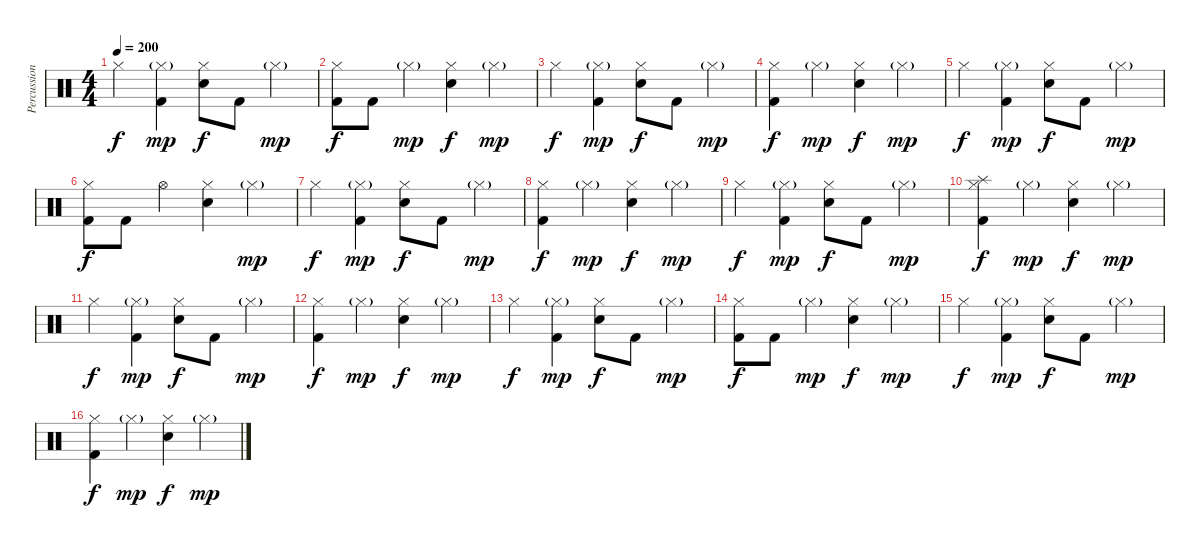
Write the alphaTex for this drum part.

\track ("Percussion" "Percussion") {instrument percussion}
\staff {score}
\articulation defaults
\ts (4 4)
\tempo 200
\clef neutral
\ks c "Hi-Hat (closed)".4{dy f}
("Hi-Hat (closed)"{g} "Kick (hit) 2").4{dy mp} ("Hi-Hat (closed)" "Electric Snare (hit)").8{dy f} "Kick (hit) 2".8 "Hi-Hat (closed)"{g}.4{dy mp} |
("Hi-Hat (closed)" "Kick (hit) 2").8{dy f} "Kick (hit) 2".8 "Hi-Hat (closed)"{g}.4{dy mp} ("Hi-Hat (closed)" "Electric Snare (hit)").4{dy f} "Hi-Hat (closed)"{g}.4{dy mp} |
"Hi-Hat (closed)".4{dy f} ("Hi-Hat (closed)"{g} "Kick (hit) 2").4{dy mp} ("Hi-Hat (closed)" "Electric Snare (hit)").8{dy f} "Kick (hit) 2".8 "Hi-Hat (closed)"{g}.4{dy mp} |
("Hi-Hat (closed)" "Kick (hit) 2").4{dy f} "Hi-Hat (closed)"{g}.4{dy mp} ("Hi-Hat (closed)" "Electric Snare (hit)").4{dy f} "Hi-Hat (closed)"{g}.4{dy mp} |
"Hi-Hat (closed)".4{dy f} ("Hi-Hat (closed)"{g} "Kick (hit) 2").4{dy mp} ("Hi-Hat (closed)" "Electric Snare (hit)").8{dy f} "Kick (hit) 2".8 "Hi-Hat (closed)"{g}.4{dy mp} |
("Hi-Hat (closed)" "Kick (hit) 2").8{dy f} "Kick (hit) 2".8 "Hi-Hat (open)".4 ("Hi-Hat (closed)" "Electric Snare (hit)").4 "Hi-Hat (closed)"{g}.4{dy mp} |
"Hi-Hat (closed)".4{dy f} ("Hi-Hat (closed)"{g} "Kick (hit) 2").4{dy mp} ("Hi-Hat (closed)" "Electric Snare (hit)").8{dy f} "Kick (hit) 2".8 "Hi-Hat (closed)"{g}.4{dy mp} |
("Hi-Hat (closed)" "Kick (hit) 2").4{dy f} "Hi-Hat (closed)"{g}.4{dy mp} ("Hi-Hat (closed)" "Electric Snare (hit)").4{dy f} "Hi-Hat (closed)"{g}.4{dy mp} |
"Hi-Hat (closed)".4{dy f} ("Hi-Hat (closed)"{g} "Kick (hit) 2").4{dy mp} ("Hi-Hat (closed)" "Electric Snare (hit)").8{dy f} "Kick (hit) 2".8 "Hi-Hat (closed)"{g}.4{dy mp} |
("Splash (hit)" "Hi-Hat (closed)" "Kick (hit) 2").4{dy f} "Hi-Hat (closed)"{g}.4{dy mp} ("Hi-Hat (closed)" "Electric Snare (hit)").4{dy f} "Hi-Hat (closed)"{g}.4{dy mp} |
"Hi-Hat (closed)".4{dy f} ("Hi-Hat (closed)"{g} "Kick (hit) 2").4{dy mp} ("Hi-Hat (closed)" "Electric Snare (hit)").8{dy f} "Kick (hit) 2".8 "Hi-Hat (closed)"{g}.4{dy mp} |
("Hi-Hat (closed)" "Kick (hit) 2").4{dy f} "Hi-Hat (closed)"{g}.4{dy mp} ("Hi-Hat (closed)" "Electric Snare (hit)").4{dy f} "Hi-Hat (closed)"{g}.4{dy mp} |
"Hi-Hat (closed)".4{dy f} ("Hi-Hat (closed)"{g} "Kick (hit) 2").4{dy mp} ("Hi-Hat (closed)" "Electric Snare (hit)").8{dy f} "Kick (hit) 2".8 "Hi-Hat (closed)"{g}.4{dy mp} |
("Hi-Hat (closed)" "Kick (hit) 2").8{dy f} "Kick (hit) 2".8 "Hi-Hat (closed)"{g}.4{dy mp} ("Hi-Hat (closed)" "Electric Snare (hit)").4{dy f} "Hi-Hat (closed)"{g}.4{dy mp} |
"Hi-Hat (closed)".4{dy f} ("Hi-Hat (closed)"{g} "Kick (hit) 2").4{dy mp} ("Hi-Hat (closed)" "Electric Snare (hit)").8{dy f} "Kick (hit) 2".8 "Hi-Hat (closed)"{g}.4{dy mp} |
("Hi-Hat (closed)" "Kick (hit) 2").4{dy f} "Hi-Hat (closed)"{g}.4{dy mp} ("Hi-Hat (closed)" "Electric Snare (hit)").4{dy f} "Hi-Hat (closed)"{g}.4{dy mp}
